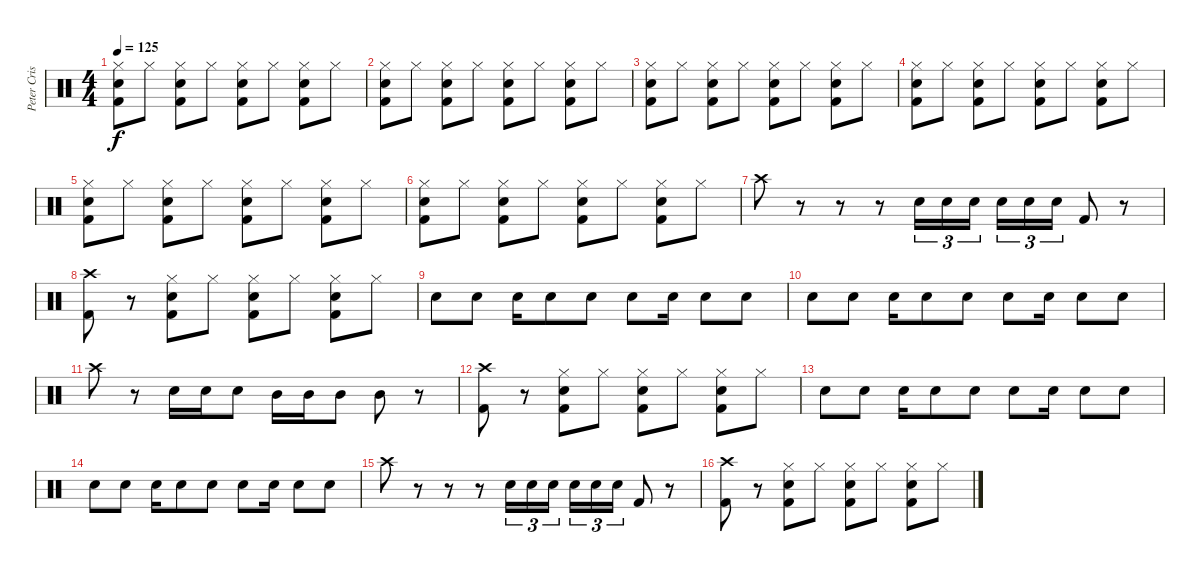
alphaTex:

\track ("Peter Criss" "Peter Cris") {instrument percussion}
\staff {score}
\articulation defaults
\ts (4 4)
\tempo 125
\clef neutral
\ks c
("Hi-Hat (closed)" "Electric Snare (hit)" "Kick (hit) 2").8{dy f} "Hi-Hat (closed)".8 ("Hi-Hat (closed)" "Electric Snare (hit)" "Kick (hit) 2").8 "Hi-Hat (closed)".8 ("Hi-Hat (closed)" "Electric Snare (hit)" "Kick (hit) 2").8 "Hi-Hat (closed)".8 ("Hi-Hat (closed)" "Electric Snare (hit)" "Kick (hit) 2").8 "Hi-Hat (closed)".8 |
("Hi-Hat (closed)" "Electric Snare (hit)" "Kick (hit) 2").8 "Hi-Hat (closed)".8 ("Hi-Hat (closed)" "Electric Snare (hit)" "Kick (hit) 2").8 "Hi-Hat (closed)".8 ("Hi-Hat (closed)" "Electric Snare (hit)" "Kick (hit) 2").8 "Hi-Hat (closed)".8 ("Hi-Hat (closed)" "Electric Snare (hit)" "Kick (hit) 2").8 "Hi-Hat (closed)".8 |
("Hi-Hat (closed)" "Electric Snare (hit)" "Kick (hit) 2").8 "Hi-Hat (closed)".8 ("Hi-Hat (closed)" "Electric Snare (hit)" "Kick (hit) 2").8 "Hi-Hat (closed)".8 ("Hi-Hat (closed)" "Electric Snare (hit)" "Kick (hit) 2").8 "Hi-Hat (closed)".8 ("Hi-Hat (closed)" "Electric Snare (hit)" "Kick (hit) 2").8 "Hi-Hat (closed)".8 |
("Hi-Hat (closed)" "Electric Snare (hit)" "Kick (hit) 2").8 "Hi-Hat (closed)".8 ("Hi-Hat (closed)" "Electric Snare (hit)" "Kick (hit) 2").8 "Hi-Hat (closed)".8 ("Hi-Hat (closed)" "Electric Snare (hit)" "Kick (hit) 2").8 "Hi-Hat (closed)".8 ("Hi-Hat (closed)" "Electric Snare (hit)" "Kick (hit) 2").8 "Hi-Hat (closed)".8 |
("Hi-Hat (closed)" "Electric Snare (hit)" "Kick (hit) 2").8 "Hi-Hat (closed)".8 ("Hi-Hat (closed)" "Electric Snare (hit)" "Kick (hit) 2").8 "Hi-Hat (closed)".8 ("Hi-Hat (closed)" "Electric Snare (hit)" "Kick (hit) 2").8 "Hi-Hat (closed)".8 ("Hi-Hat (closed)" "Electric Snare (hit)" "Kick (hit) 2").8 "Hi-Hat (closed)".8 |
("Hi-Hat (closed)" "Electric Snare (hit)" "Kick (hit) 2").8 "Hi-Hat (closed)".8 ("Hi-Hat (closed)" "Electric Snare (hit)" "Kick (hit) 2").8 "Hi-Hat (closed)".8 ("Hi-Hat (closed)" "Electric Snare (hit)" "Kick (hit) 2").8 "Hi-Hat (closed)".8 ("Hi-Hat (closed)" "Electric Snare (hit)" "Kick (hit) 2").8 "Hi-Hat (closed)".8 |
"Crash high (hit)".8 r.8 r.8 r.8 "Electric Snare (hit)".16{tu (3 2)} "Electric Snare (hit)".16{tu (3 2)} "Electric Snare (hit)".16{tu (3 2)} "Electric Snare (hit)".16{tu (3 2)} "Electric Snare (hit)".16{tu (3 2)} "Electric Snare (hit)".16{tu (3 2)} "Kick (hit) 2".8 r.8 |
("Crash high (hit)" "Kick (hit) 2").8 r.8 ("Hi-Hat (closed)" "Electric Snare (hit)" "Kick (hit) 2").8 "Hi-Hat (closed)".8 ("Hi-Hat (closed)" "Electric Snare (hit)" "Kick (hit) 2").8 "Hi-Hat (closed)".8 ("Hi-Hat (closed)" "Electric Snare (hit)" "Kick (hit) 2").8 "Hi-Hat (closed)".8 |
"Electric Snare (hit)".8 "Electric Snare (hit)".8 "Electric Snare (hit)".16 "Electric Snare (hit)".8 "Electric Snare (hit)".8 "Electric Snare (hit)".8 "Electric Snare (hit)".16 "Electric Snare (hit)".8 "Electric Snare (hit)".8 |
"Electric Snare (hit)".8 "Electric Snare (hit)".8 "Electric Snare (hit)".16 "Electric Snare (hit)".8 "Electric Snare (hit)".8 "Electric Snare (hit)".8 "Electric Snare (hit)".16 "Electric Snare (hit)".8 "Electric Snare (hit)".8 |
"Crash high (hit)".8 r.8 "Electric Snare (hit)".16 "Electric Snare (hit)".16 "Electric Snare (hit)".8 "Mid Tom (hit)".16 "Mid Tom (hit)".16 "Mid Tom (hit)".8 "Mid Tom (hit)".8 r.8 |
("Crash high (hit)" "Kick (hit) 2").8 r.8 ("Hi-Hat (closed)" "Electric Snare (hit)" "Kick (hit) 2").8 "Hi-Hat (closed)".8 ("Hi-Hat (closed)" "Electric Snare (hit)" "Kick (hit) 2").8 "Hi-Hat (closed)".8 ("Hi-Hat (closed)" "Electric Snare (hit)" "Kick (hit) 2").8 "Hi-Hat (closed)".8 |
"Electric Snare (hit)".8 "Electric Snare (hit)".8 "Electric Snare (hit)".16 "Electric Snare (hit)".8 "Electric Snare (hit)".8 "Electric Snare (hit)".8 "Electric Snare (hit)".16 "Electric Snare (hit)".8 "Electric Snare (hit)".8 |
"Electric Snare (hit)".8 "Electric Snare (hit)".8 "Electric Snare (hit)".16 "Electric Snare (hit)".8 "Electric Snare (hit)".8 "Electric Snare (hit)".8 "Electric Snare (hit)".16 "Electric Snare (hit)".8 "Electric Snare (hit)".8 |
"Crash high (hit)".8 r.8 r.8 r.8 "Electric Snare (hit)".16{tu (3 2)} "Electric Snare (hit)".16{tu (3 2)} "Electric Snare (hit)".16{tu (3 2)} "Electric Snare (hit)".16{tu (3 2)} "Electric Snare (hit)".16{tu (3 2)} "Electric Snare (hit)".16{tu (3 2)} "Kick (hit) 2".8 r.8 |
("Crash high (hit)" "Kick (hit) 2").8 r.8 ("Hi-Hat (closed)" "Electric Snare (hit)" "Kick (hit) 2").8 "Hi-Hat (closed)".8 ("Hi-Hat (closed)" "Electric Snare (hit)" "Kick (hit) 2").8 "Hi-Hat (closed)".8 ("Hi-Hat (closed)" "Electric Snare (hit)" "Kick (hit) 2").8 "Hi-Hat (closed)".8
